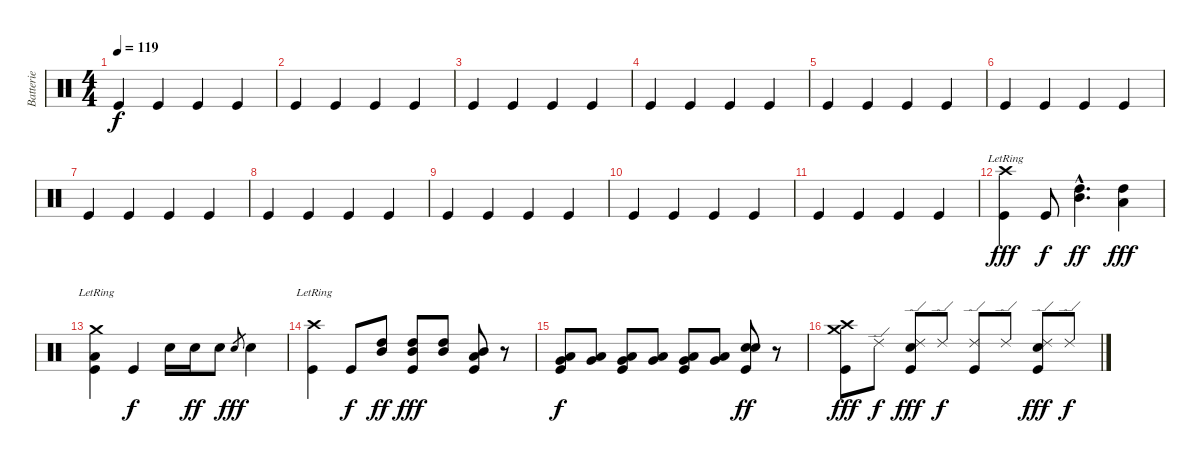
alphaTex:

\track ("Batterie" "Batterie") {instrument percussion}
\staff {score}
\articulation defaults
\ts (4 4)
\tempo 119
\clef neutral
\ks c "Kick (hit)".4{dy f} "Kick (hit)".4 "Kick (hit)".4 "Kick (hit)".4
|
"Kick (hit)".4 "Kick (hit)".4 "Kick (hit)".4 "Kick (hit)".4 |
"Kick (hit)".4 "Kick (hit)".4 "Kick (hit)".4 "Kick (hit)".4 |
"Kick (hit)".4 "Kick (hit)".4 "Kick (hit)".4 "Kick (hit)".4 |
"Kick (hit)".4 "Kick (hit)".4 "Kick (hit)".4 "Kick (hit)".4 |
"Kick (hit)".4 "Kick (hit)".4 "Kick (hit)".4 "Kick (hit)".4 |
"Kick (hit)".4 "Kick (hit)".4 "Kick (hit)".4 "Kick (hit)".4 |
"Kick (hit)".4 "Kick (hit)".4 "Kick (hit)".4 "Kick (hit)".4 |
"Kick (hit)".4 "Kick (hit)".4 "Kick (hit)".4 "Kick (hit)".4 |
"Kick (hit)".4 "Kick (hit)".4 "Kick (hit)".4 "Kick (hit)".4 |
"Kick (hit)".4 "Kick (hit)".4 "Kick (hit)".4 "Kick (hit)".4 |
("Kick (hit)" "Crash high (hit)"{lr}).4{dy fff} "Kick (hit)".8{dy f} ("Mid Tom (hit)"{hac} "High Tom (hit)"{hac}).4{d dy ff} ("High Tom (hit)" "Low Tom (hit)").4{dy fff} |
("Low Tom (hit)" "Kick (hit)" "Crash medium (hit)"{lr}).4 "Kick (hit)".4{dy f} "Electric Snare (hit)".16 "Electric Snare (hit)".16{dy ff} "Electric Snare (hit)".8 "Electric Snare (hit)".8{gr dy fff} "Electric Snare (hit)".4 |
("Kick (hit)" "Crash high (hit)"{lr}).4 "Kick (hit)".8{dy f} ("High Tom (hit)" "Mid Tom (hit)").8{dy ff} ("High Tom (hit)" "Mid Tom (hit)" "Kick (hit)").8{dy fff} ("High Tom (hit)" "Mid Tom (hit)").8 ("Mid Tom (hit)" "Low Tom (hit)" "Kick (hit)").8 r.8 |
("Low Tom (hit)" "Kick (hit)" "Very Low Tom (hit)").8{dy f} ("Low Tom (hit)" "Very Low Tom (hit)").8 ("Low Tom (hit)" "Kick (hit)" "Very Low Tom (hit)").8 ("Low Tom (hit)" "Very Low Tom (hit)").8 ("Low Tom (hit)" "Kick (hit)" "Very Low Tom (hit)").8 ("Low Tom (hit)" "Very Low Tom (hit)").8 ("Electric Snare (hit)" "Kick (hit)" "Electric Snare (hit)").8{dy ff} r.8 |
("Kick (hit)" "Crash medium (hit)" "Crash high (hit)").8{dy fff} "Ride (edge) 2".8{dy f} ("Ride (edge) 2" "Kick (hit)" "Electric Snare (hit)").8{dy fff} "Ride (edge) 2".8{dy f} ("Ride (edge) 2" "Kick (hit)").8 "Ride (edge) 2".8 ("Ride (edge) 2" "Kick (hit)" "Electric Snare (hit)").8{dy fff} "Ride (edge) 2".8{dy f}
